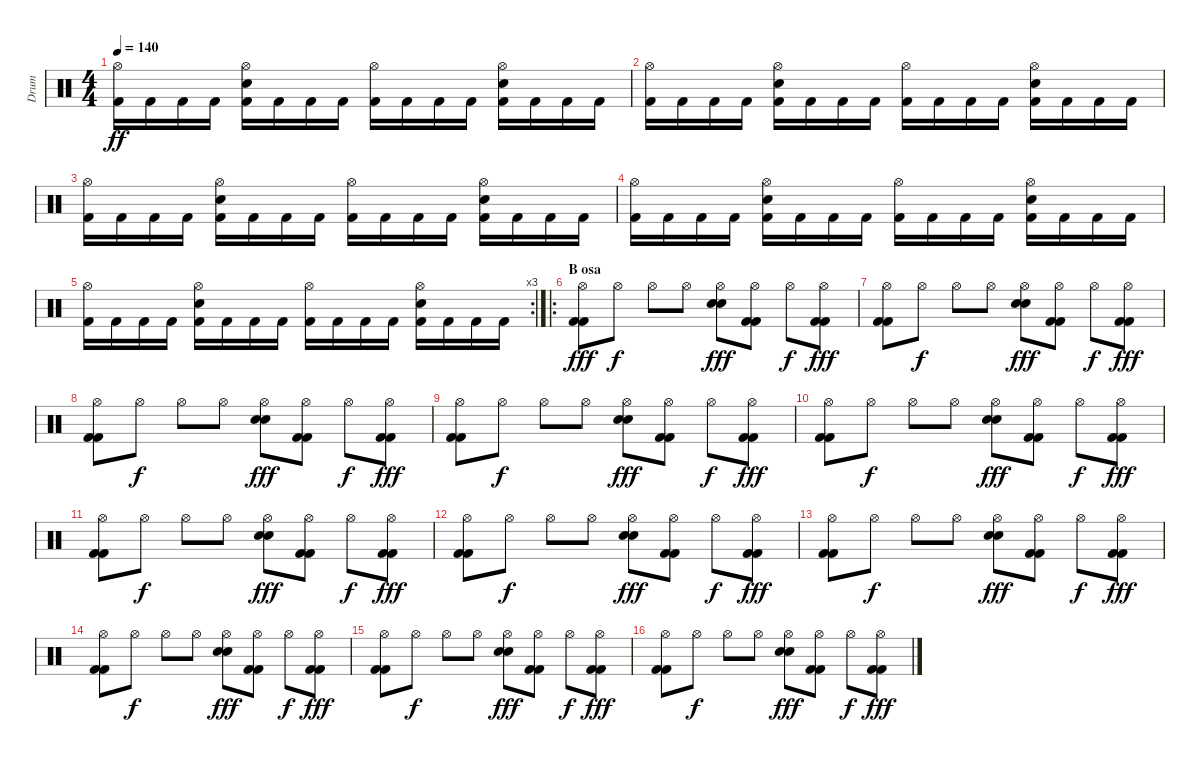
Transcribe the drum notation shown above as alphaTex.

\track ("Drum" "Drum") {instrument percussion}
\staff {score}
\articulation defaults
\ts (4 4)
\tempo 140
\clef neutral
\ks c
("Hi-Hat (open)" "Kick (hit) 2").16{dy ff} "Kick (hit) 2".16 "Kick (hit) 2".16 "Kick (hit) 2".16 ("Hi-Hat (open)" "Snare (hit) 2" "Kick (hit) 2").16 "Kick (hit) 2".16 "Kick (hit) 2".16 "Kick (hit) 2".16 ("Hi-Hat (open)" "Kick (hit) 2").16 "Kick (hit) 2".16 "Kick (hit) 2".16 "Kick (hit) 2".16 ("Hi-Hat (open)" "Snare (hit) 2" "Kick (hit) 2").16 "Kick (hit) 2".16 "Kick (hit) 2".16 "Kick (hit) 2".16 |
("Hi-Hat (open)" "Kick (hit) 2").16 "Kick (hit) 2".16 "Kick (hit) 2".16 "Kick (hit) 2".16 ("Hi-Hat (open)" "Snare (hit) 2" "Kick (hit) 2").16 "Kick (hit) 2".16 "Kick (hit) 2".16 "Kick (hit) 2".16 ("Hi-Hat (open)" "Kick (hit) 2").16 "Kick (hit) 2".16 "Kick (hit) 2".16 "Kick (hit) 2".16 ("Hi-Hat (open)" "Snare (hit) 2" "Kick (hit) 2").16 "Kick (hit) 2".16 "Kick (hit) 2".16 "Kick (hit) 2".16 |
("Hi-Hat (open)" "Kick (hit) 2").16 "Kick (hit) 2".16 "Kick (hit) 2".16 "Kick (hit) 2".16 ("Hi-Hat (open)" "Snare (hit) 2" "Kick (hit) 2").16 "Kick (hit) 2".16 "Kick (hit) 2".16 "Kick (hit) 2".16 ("Hi-Hat (open)" "Kick (hit) 2").16 "Kick (hit) 2".16 "Kick (hit) 2".16 "Kick (hit) 2".16 ("Hi-Hat (open)" "Snare (hit) 2" "Kick (hit) 2").16 "Kick (hit) 2".16 "Kick (hit) 2".16 "Kick (hit) 2".16 |
("Hi-Hat (open)" "Kick (hit) 2").16 "Kick (hit) 2".16 "Kick (hit) 2".16 "Kick (hit) 2".16 ("Hi-Hat (open)" "Snare (hit) 2" "Kick (hit) 2").16 "Kick (hit) 2".16 "Kick (hit) 2".16 "Kick (hit) 2".16 ("Hi-Hat (open)" "Kick (hit) 2").16 "Kick (hit) 2".16 "Kick (hit) 2".16 "Kick (hit) 2".16 ("Hi-Hat (open)" "Snare (hit) 2" "Kick (hit) 2").16 "Kick (hit) 2".16 "Kick (hit) 2".16 "Kick (hit) 2".16 |
\rc 3
("Hi-Hat (open)" "Kick (hit) 2").16 "Kick (hit) 2".16 "Kick (hit) 2".16 "Kick (hit) 2".16 ("Hi-Hat (open)" "Snare (hit) 2" "Kick (hit) 2").16 "Kick (hit) 2".16 "Kick (hit) 2".16 "Kick (hit) 2".16 ("Hi-Hat (open)" "Kick (hit) 2").16 "Kick (hit) 2".16 "Kick (hit) 2".16 "Kick (hit) 2".16 ("Hi-Hat (open)" "Snare (hit) 2" "Kick (hit) 2").16 "Kick (hit) 2".16 "Kick (hit) 2".16 "Kick (hit) 2".16 |
\ro
\section ("" "B osa")
("Hi-Hat (open)" "Kick (hit) 2" "Kick (hit) 2").8{dy fff} "Hi-Hat (open)".8{dy f} "Hi-Hat (open)".8 "Hi-Hat (open)".8 ("Hi-Hat (open)" "Snare (hit) 2" "Snare (hit) 2").8{dy fff} ("Hi-Hat (open)" "Kick (hit) 2" "Kick (hit) 2").8 "Hi-Hat (open)".8{dy f} ("Hi-Hat (open)" "Kick (hit) 2" "Kick (hit) 2").8{dy fff} |
("Hi-Hat (open)" "Kick (hit) 2" "Kick (hit) 2").8 "Hi-Hat (open)".8{dy f} "Hi-Hat (open)".8 "Hi-Hat (open)".8 ("Hi-Hat (open)" "Snare (hit) 2" "Snare (hit) 2").8{dy fff} ("Hi-Hat (open)" "Kick (hit) 2" "Kick (hit) 2").8 "Hi-Hat (open)".8{dy f} ("Hi-Hat (open)" "Kick (hit) 2" "Kick (hit) 2").8{dy fff} |
("Hi-Hat (open)" "Kick (hit) 2" "Kick (hit) 2").8 "Hi-Hat (open)".8{dy f} "Hi-Hat (open)".8 "Hi-Hat (open)".8 ("Hi-Hat (open)" "Snare (hit) 2" "Snare (hit) 2").8{dy fff} ("Hi-Hat (open)" "Kick (hit) 2" "Kick (hit) 2").8 "Hi-Hat (open)".8{dy f} ("Hi-Hat (open)" "Kick (hit) 2" "Kick (hit) 2").8{dy fff} |
("Hi-Hat (open)" "Kick (hit) 2" "Kick (hit) 2").8 "Hi-Hat (open)".8{dy f} "Hi-Hat (open)".8 "Hi-Hat (open)".8 ("Hi-Hat (open)" "Snare (hit) 2" "Snare (hit) 2").8{dy fff} ("Hi-Hat (open)" "Kick (hit) 2" "Kick (hit) 2").8 "Hi-Hat (open)".8{dy f} ("Hi-Hat (open)" "Kick (hit) 2" "Kick (hit) 2").8{dy fff} |
("Hi-Hat (open)" "Kick (hit) 2" "Kick (hit) 2").8 "Hi-Hat (open)".8{dy f} "Hi-Hat (open)".8 "Hi-Hat (open)".8 ("Hi-Hat (open)" "Snare (hit) 2" "Snare (hit) 2").8{dy fff} ("Hi-Hat (open)" "Kick (hit) 2" "Kick (hit) 2").8 "Hi-Hat (open)".8{dy f} ("Hi-Hat (open)" "Kick (hit) 2" "Kick (hit) 2").8{dy fff} |
("Hi-Hat (open)" "Kick (hit) 2" "Kick (hit) 2").8 "Hi-Hat (open)".8{dy f} "Hi-Hat (open)".8 "Hi-Hat (open)".8 ("Hi-Hat (open)" "Snare (hit) 2" "Snare (hit) 2").8{dy fff} ("Hi-Hat (open)" "Kick (hit) 2" "Kick (hit) 2").8 "Hi-Hat (open)".8{dy f} ("Hi-Hat (open)" "Kick (hit) 2" "Kick (hit) 2").8{dy fff} |
("Hi-Hat (open)" "Kick (hit) 2" "Kick (hit) 2").8 "Hi-Hat (open)".8{dy f} "Hi-Hat (open)".8 "Hi-Hat (open)".8 ("Hi-Hat (open)" "Snare (hit) 2" "Snare (hit) 2").8{dy fff} ("Hi-Hat (open)" "Kick (hit) 2" "Kick (hit) 2").8 "Hi-Hat (open)".8{dy f} ("Hi-Hat (open)" "Kick (hit) 2" "Kick (hit) 2").8{dy fff} |
("Hi-Hat (open)" "Kick (hit) 2" "Kick (hit) 2").8 "Hi-Hat (open)".8{dy f} "Hi-Hat (open)".8 "Hi-Hat (open)".8 ("Hi-Hat (open)" "Snare (hit) 2" "Snare (hit) 2").8{dy fff} ("Hi-Hat (open)" "Kick (hit) 2" "Kick (hit) 2").8 "Hi-Hat (open)".8{dy f} ("Hi-Hat (open)" "Kick (hit) 2" "Kick (hit) 2").8{dy fff} |
("Hi-Hat (open)" "Kick (hit) 2" "Kick (hit) 2").8 "Hi-Hat (open)".8{dy f} "Hi-Hat (open)".8 "Hi-Hat (open)".8 ("Hi-Hat (open)" "Snare (hit) 2" "Snare (hit) 2").8{dy fff} ("Hi-Hat (open)" "Kick (hit) 2" "Kick (hit) 2").8 "Hi-Hat (open)".8{dy f} ("Hi-Hat (open)" "Kick (hit) 2" "Kick (hit) 2").8{dy fff} |
("Hi-Hat (open)" "Kick (hit) 2" "Kick (hit) 2").8 "Hi-Hat (open)".8{dy f} "Hi-Hat (open)".8 "Hi-Hat (open)".8 ("Hi-Hat (open)" "Snare (hit) 2" "Snare (hit) 2").8{dy fff} ("Hi-Hat (open)" "Kick (hit) 2" "Kick (hit) 2").8 "Hi-Hat (open)".8{dy f} ("Hi-Hat (open)" "Kick (hit) 2" "Kick (hit) 2").8{dy fff} |
("Hi-Hat (open)" "Kick (hit) 2" "Kick (hit) 2").8 "Hi-Hat (open)".8{dy f} "Hi-Hat (open)".8 "Hi-Hat (open)".8 ("Hi-Hat (open)" "Snare (hit) 2" "Snare (hit) 2").8{dy fff} ("Hi-Hat (open)" "Kick (hit) 2" "Kick (hit) 2").8 "Hi-Hat (open)".8{dy f} ("Hi-Hat (open)" "Kick (hit) 2" "Kick (hit) 2").8{dy fff}
